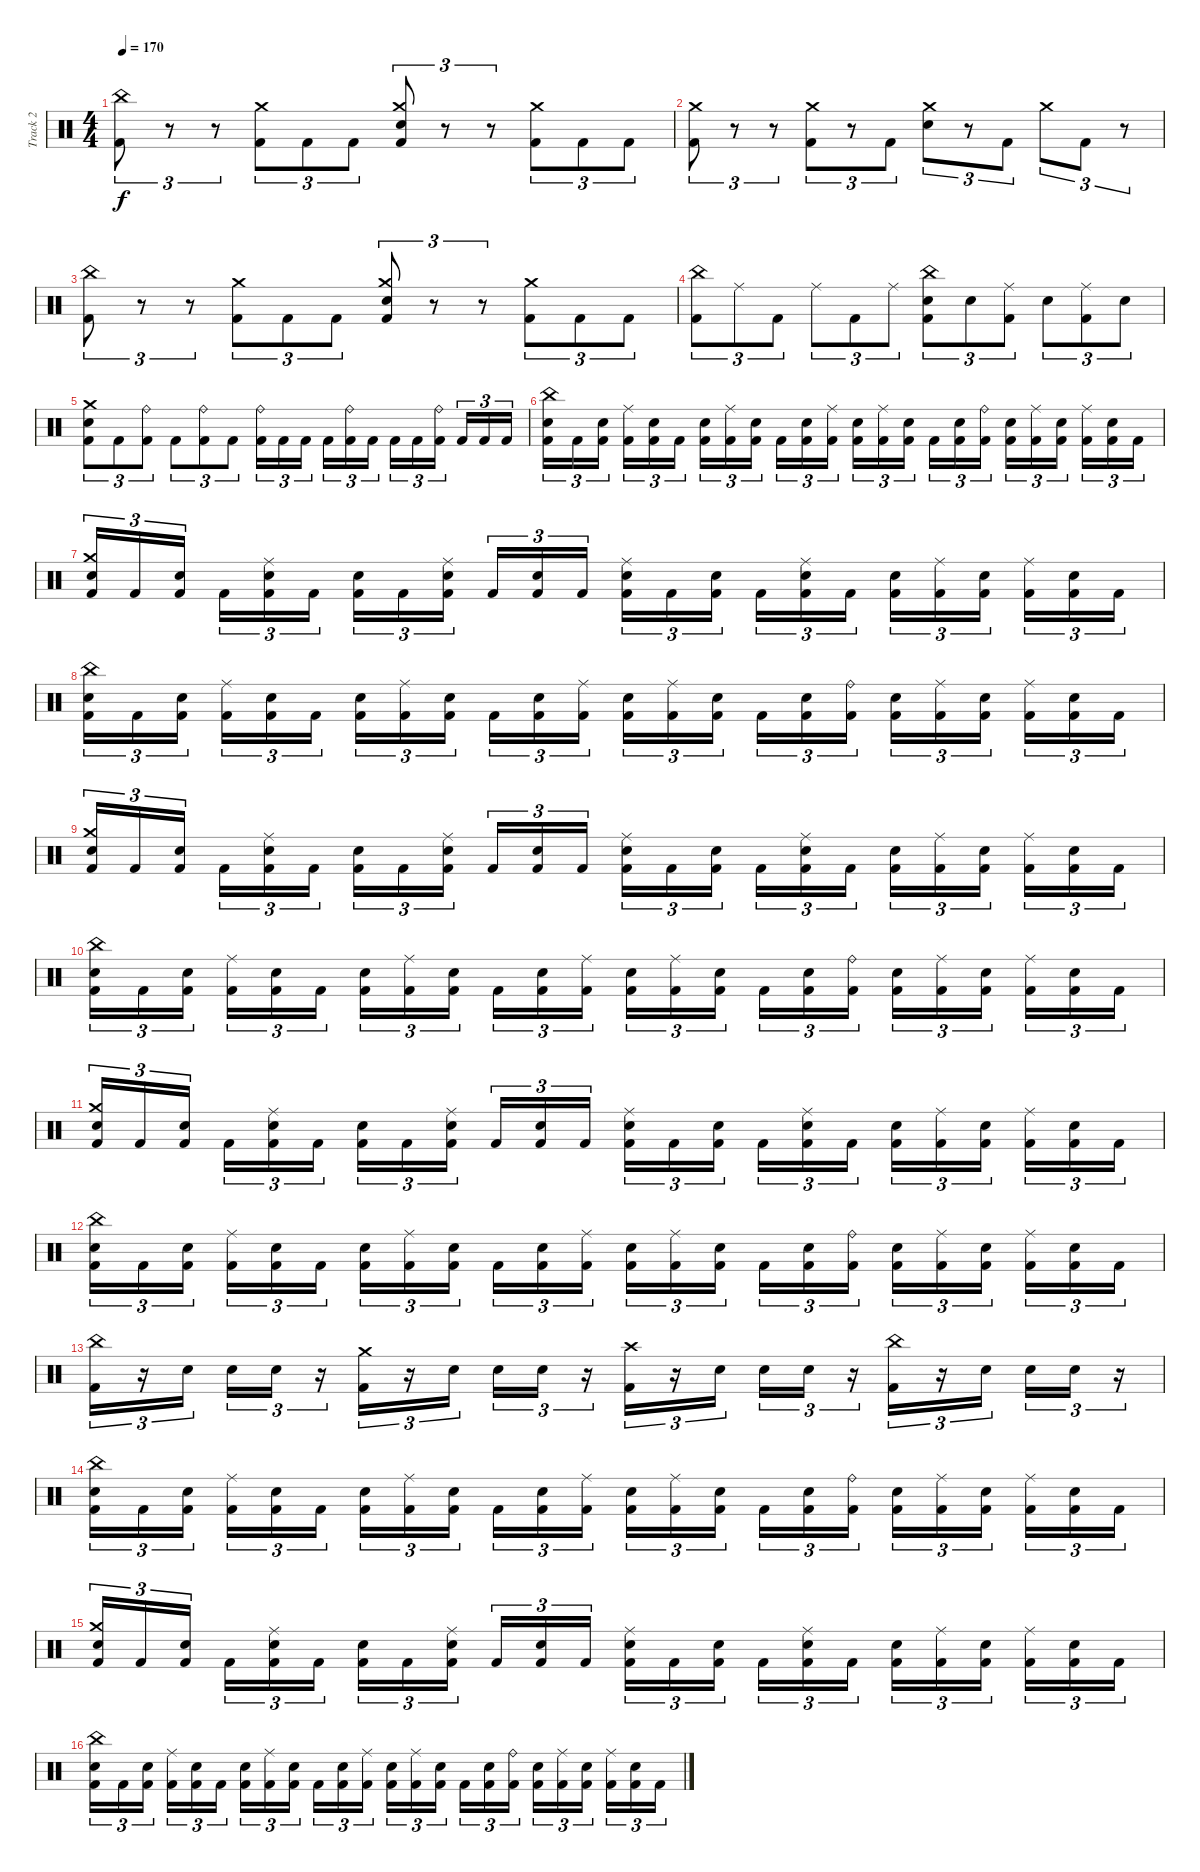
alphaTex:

\track ("Track 2" "Track 2") {instrument percussion}
\staff {score}
\articulation defaults
\ts (4 4)
\tempo 170
\clef neutral
\ks c
("China (hit)" "Kick (hit) 2").8{tu (3 2) dy f} r.8{tu (3 2)} r.8{tu (3 2)} ("Crash medium (hit)" "Kick (hit) 2").8{tu (3 2)} "Kick (hit) 2".8{tu (3 2)} "Kick (hit) 2".8{tu (3 2)} ("Crash medium (hit)" "Electric Snare (hit)" "Kick (hit) 2").8{tu (3 2)} r.8{tu (3 2)} r.8{tu (3 2)} ("Crash medium (hit)" "Kick (hit) 2").8{tu (3 2)} "Kick (hit) 2".8{tu (3 2)} "Kick (hit) 2".8{tu (3 2)} |
("Crash medium (hit)" "Kick (hit) 2").8{tu (3 2)} r.8{tu (3 2)} r.8{tu (3 2)} ("Crash medium (hit)" "Kick (hit) 2").8{tu (3 2)} r.8{tu (3 2)} "Kick (hit) 2".8{tu (3 2)} ("Crash medium (hit)" "Electric Snare (hit)").8{tu (3 2)} r.8{tu (3 2)} "Kick (hit) 2".8{tu (3 2)} "Crash medium (hit)".8{tu (3 2)} "Kick (hit) 2".8{tu (3 2)} r.8{tu (3 2)} |
("China (hit)" "Kick (hit) 2").8{tu (3 2)} r.8{tu (3 2)} r.8{tu (3 2)} ("Crash medium (hit)" "Kick (hit) 2").8{tu (3 2)} "Kick (hit) 2".8{tu (3 2)} "Kick (hit) 2".8{tu (3 2)} ("Crash medium (hit)" "Electric Snare (hit)" "Kick (hit) 2").8{tu (3 2)} r.8{tu (3 2)} r.8{tu (3 2)} ("Crash medium (hit)" "Kick (hit) 2").8{tu (3 2)} "Kick (hit) 2".8{tu (3 2)} "Kick (hit) 2".8{tu (3 2)} |
("China (hit)" "Kick (hit) 2").8{tu (3 2)} "Ride (middle)".8{tu (3 2)} "Kick (hit) 2".8{tu (3 2)} "Ride (middle)".8{tu (3 2)} "Kick (hit) 2".8{tu (3 2)} "Ride (middle)".8{tu (3 2)} ("China (hit)" "Electric Snare (hit)" "Kick (hit) 2").8{tu (3 2)} "Electric Snare (hit)".8{tu (3 2)} ("Ride (middle)" "Kick (hit) 2").8{tu (3 2)} "Electric Snare (hit)".8{tu (3 2)} ("Ride (middle)" "Kick (hit) 2").8{tu (3 2)} "Electric Snare (hit)".8{tu (3 2)} |
("Crash medium (hit)" "Electric Snare (hit)" "Kick (hit) 2").8{tu (3 2)} "Kick (hit) 2".8{tu (3 2)} ("Ride (bell)" "Kick (hit) 2").8{tu (3 2)} "Kick (hit) 2".8{tu (3 2)} ("Ride (bell)" "Kick (hit) 2").8{tu (3 2)} "Kick (hit) 2".8{tu (3 2)} ("Ride (bell)" "Kick (hit) 2").16{tu (3 2)} "Kick (hit) 2".16{tu (3 2)} "Kick (hit) 2".16{tu (3 2)} "Kick (hit) 2".16{tu (3 2)} ("Ride (bell)" "Kick (hit) 2").16{tu (3 2)} "Kick (hit) 2".16{tu (3 2)} "Kick (hit) 2".16{tu (3 2)} "Kick (hit) 2".16{tu (3 2)} ("Ride (bell)" "Kick (hit) 2").16{tu (3 2)} "Kick (hit) 2".16{tu (3 2)} "Kick (hit) 2".16{tu (3 2)} "Kick (hit) 2".16{tu (3 2)} |
("China (hit)" "Electric Snare (hit)" "Kick (hit) 2").16{tu (3 2)} "Kick (hit) 2".16{tu (3 2)} ("Electric Snare (hit)" "Kick (hit) 2").16{tu (3 2)} ("Ride (middle)" "Kick (hit) 2").16{tu (3 2)} ("Electric Snare (hit)" "Kick (hit) 2").16{tu (3 2)} "Kick (hit) 2".16{tu (3 2)} ("Electric Snare (hit)" "Kick (hit) 2").16{tu (3 2)} ("Ride (middle)" "Kick (hit) 2").16{tu (3 2)} ("Electric Snare (hit)" "Kick (hit) 2").16{tu (3 2)} "Kick (hit) 2".16{tu (3 2)} ("Electric Snare (hit)" "Kick (hit) 2").16{tu (3 2)} ("Ride (middle)" "Kick (hit) 2").16{tu (3 2)} ("Electric Snare (hit)" "Kick (hit) 2").16{tu (3 2)} ("Ride (middle)" "Kick (hit) 2").16{tu (3 2)} ("Electric Snare (hit)" "Kick (hit) 2").16{tu (3 2)} "Kick (hit) 2".16{tu (3 2)} ("Electric Snare (hit)" "Kick (hit) 2").16{tu (3 2)} ("Ride (bell)" "Kick (hit) 2").16{tu (3 2)} ("Electric Snare (hit)" "Kick (hit) 2").16{tu (3 2)} ("Ride (middle)" "Kick (hit) 2").16{tu (3 2)} ("Electric Snare (hit)" "Kick (hit) 2").16{tu (3 2)} ("Ride (middle)" "Kick (hit) 2").16{tu (3 2)} ("Electric Snare (hit)" "Kick (hit) 2").16{tu (3 2)} "Kick (hit) 2".16{tu (3 2)} |
("Crash medium (hit)" "Electric Snare (hit)" "Kick (hit) 2").16{tu (3 2)} "Kick (hit) 2".16{tu (3 2)} ("Electric Snare (hit)" "Kick (hit) 2").16{tu (3 2)} "Kick (hit) 2".16{tu (3 2)} ("Ride (middle)" "Electric Snare (hit)" "Kick (hit) 2").16{tu (3 2)} "Kick (hit) 2".16{tu (3 2)} ("Electric Snare (hit)" "Kick (hit) 2").16{tu (3 2)} "Kick (hit) 2".16{tu (3 2)} ("Ride (middle)" "Electric Snare (hit)" "Kick (hit) 2").16{tu (3 2)} "Kick (hit) 2".16{tu (3 2)} ("Electric Snare (hit)" "Kick (hit) 2").16{tu (3 2)} "Kick (hit) 2".16{tu (3 2)} ("Ride (middle)" "Electric Snare (hit)" "Kick (hit) 2").16{tu (3 2)} "Kick (hit) 2".16{tu (3 2)} ("Electric Snare (hit)" "Kick (hit) 2").16{tu (3 2)} "Kick (hit) 2".16{tu (3 2)} ("Ride (middle)" "Electric Snare (hit)" "Kick (hit) 2").16{tu (3 2)} "Kick (hit) 2".16{tu (3 2)} ("Electric Snare (hit)" "Kick (hit) 2").16{tu (3 2)} ("Ride (middle)" "Kick (hit) 2").16{tu (3 2)} ("Electric Snare (hit)" "Kick (hit) 2").16{tu (3 2)} ("Ride (middle)" "Kick (hit) 2").16{tu (3 2)} ("Electric Snare (hit)" "Kick (hit) 2").16{tu (3 2)} "Kick (hit) 2".16{tu (3 2)} |
("China (hit)" "Electric Snare (hit)" "Kick (hit) 2").16{tu (3 2)} "Kick (hit) 2".16{tu (3 2)} ("Electric Snare (hit)" "Kick (hit) 2").16{tu (3 2)} ("Ride (middle)" "Kick (hit) 2").16{tu (3 2)} ("Electric Snare (hit)" "Kick (hit) 2").16{tu (3 2)} "Kick (hit) 2".16{tu (3 2)} ("Electric Snare (hit)" "Kick (hit) 2").16{tu (3 2)} ("Ride (middle)" "Kick (hit) 2").16{tu (3 2)} ("Electric Snare (hit)" "Kick (hit) 2").16{tu (3 2)} "Kick (hit) 2".16{tu (3 2)} ("Electric Snare (hit)" "Kick (hit) 2").16{tu (3 2)} ("Ride (middle)" "Kick (hit) 2").16{tu (3 2)} ("Electric Snare (hit)" "Kick (hit) 2").16{tu (3 2)} ("Ride (middle)" "Kick (hit) 2").16{tu (3 2)} ("Electric Snare (hit)" "Kick (hit) 2").16{tu (3 2)} "Kick (hit) 2".16{tu (3 2)} ("Electric Snare (hit)" "Kick (hit) 2").16{tu (3 2)} ("Ride (bell)" "Kick (hit) 2").16{tu (3 2)} ("Electric Snare (hit)" "Kick (hit) 2").16{tu (3 2)} ("Ride (middle)" "Kick (hit) 2").16{tu (3 2)} ("Electric Snare (hit)" "Kick (hit) 2").16{tu (3 2)} ("Ride (middle)" "Kick (hit) 2").16{tu (3 2)} ("Electric Snare (hit)" "Kick (hit) 2").16{tu (3 2)} "Kick (hit) 2".16{tu (3 2)} |
("Crash medium (hit)" "Electric Snare (hit)" "Kick (hit) 2").16{tu (3 2)} "Kick (hit) 2".16{tu (3 2)} ("Electric Snare (hit)" "Kick (hit) 2").16{tu (3 2)} "Kick (hit) 2".16{tu (3 2)} ("Ride (middle)" "Electric Snare (hit)" "Kick (hit) 2").16{tu (3 2)} "Kick (hit) 2".16{tu (3 2)} ("Electric Snare (hit)" "Kick (hit) 2").16{tu (3 2)} "Kick (hit) 2".16{tu (3 2)} ("Ride (middle)" "Electric Snare (hit)" "Kick (hit) 2").16{tu (3 2)} "Kick (hit) 2".16{tu (3 2)} ("Electric Snare (hit)" "Kick (hit) 2").16{tu (3 2)} "Kick (hit) 2".16{tu (3 2)} ("Ride (middle)" "Electric Snare (hit)" "Kick (hit) 2").16{tu (3 2)} "Kick (hit) 2".16{tu (3 2)} ("Electric Snare (hit)" "Kick (hit) 2").16{tu (3 2)} "Kick (hit) 2".16{tu (3 2)} ("Ride (middle)" "Electric Snare (hit)" "Kick (hit) 2").16{tu (3 2)} "Kick (hit) 2".16{tu (3 2)} ("Electric Snare (hit)" "Kick (hit) 2").16{tu (3 2)} ("Ride (middle)" "Kick (hit) 2").16{tu (3 2)} ("Electric Snare (hit)" "Kick (hit) 2").16{tu (3 2)} ("Ride (middle)" "Kick (hit) 2").16{tu (3 2)} ("Electric Snare (hit)" "Kick (hit) 2").16{tu (3 2)} "Kick (hit) 2".16{tu (3 2)} |
("China (hit)" "Electric Snare (hit)" "Kick (hit) 2").16{tu (3 2)} "Kick (hit) 2".16{tu (3 2)} ("Electric Snare (hit)" "Kick (hit) 2").16{tu (3 2)} ("Ride (middle)" "Kick (hit) 2").16{tu (3 2)} ("Electric Snare (hit)" "Kick (hit) 2").16{tu (3 2)} "Kick (hit) 2".16{tu (3 2)} ("Electric Snare (hit)" "Kick (hit) 2").16{tu (3 2)} ("Ride (middle)" "Kick (hit) 2").16{tu (3 2)} ("Electric Snare (hit)" "Kick (hit) 2").16{tu (3 2)} "Kick (hit) 2".16{tu (3 2)} ("Electric Snare (hit)" "Kick (hit) 2").16{tu (3 2)} ("Ride (middle)" "Kick (hit) 2").16{tu (3 2)} ("Electric Snare (hit)" "Kick (hit) 2").16{tu (3 2)} ("Ride (middle)" "Kick (hit) 2").16{tu (3 2)} ("Electric Snare (hit)" "Kick (hit) 2").16{tu (3 2)} "Kick (hit) 2".16{tu (3 2)} ("Electric Snare (hit)" "Kick (hit) 2").16{tu (3 2)} ("Ride (bell)" "Kick (hit) 2").16{tu (3 2)} ("Electric Snare (hit)" "Kick (hit) 2").16{tu (3 2)} ("Ride (middle)" "Kick (hit) 2").16{tu (3 2)} ("Electric Snare (hit)" "Kick (hit) 2").16{tu (3 2)} ("Ride (middle)" "Kick (hit) 2").16{tu (3 2)} ("Electric Snare (hit)" "Kick (hit) 2").16{tu (3 2)} "Kick (hit) 2".16{tu (3 2)} |
("Crash medium (hit)" "Electric Snare (hit)" "Kick (hit) 2").16{tu (3 2)} "Kick (hit) 2".16{tu (3 2)} ("Electric Snare (hit)" "Kick (hit) 2").16{tu (3 2)} "Kick (hit) 2".16{tu (3 2)} ("Ride (middle)" "Electric Snare (hit)" "Kick (hit) 2").16{tu (3 2)} "Kick (hit) 2".16{tu (3 2)} ("Electric Snare (hit)" "Kick (hit) 2").16{tu (3 2)} "Kick (hit) 2".16{tu (3 2)} ("Ride (middle)" "Electric Snare (hit)" "Kick (hit) 2").16{tu (3 2)} "Kick (hit) 2".16{tu (3 2)} ("Electric Snare (hit)" "Kick (hit) 2").16{tu (3 2)} "Kick (hit) 2".16{tu (3 2)} ("Ride (middle)" "Electric Snare (hit)" "Kick (hit) 2").16{tu (3 2)} "Kick (hit) 2".16{tu (3 2)} ("Electric Snare (hit)" "Kick (hit) 2").16{tu (3 2)} "Kick (hit) 2".16{tu (3 2)} ("Ride (middle)" "Electric Snare (hit)" "Kick (hit) 2").16{tu (3 2)} "Kick (hit) 2".16{tu (3 2)} ("Electric Snare (hit)" "Kick (hit) 2").16{tu (3 2)} ("Ride (middle)" "Kick (hit) 2").16{tu (3 2)} ("Electric Snare (hit)" "Kick (hit) 2").16{tu (3 2)} ("Ride (middle)" "Kick (hit) 2").16{tu (3 2)} ("Electric Snare (hit)" "Kick (hit) 2").16{tu (3 2)} "Kick (hit) 2".16{tu (3 2)} |
("China (hit)" "Electric Snare (hit)" "Kick (hit) 2").16{tu (3 2)} "Kick (hit) 2".16{tu (3 2)} ("Electric Snare (hit)" "Kick (hit) 2").16{tu (3 2)} ("Ride (middle)" "Kick (hit) 2").16{tu (3 2)} ("Electric Snare (hit)" "Kick (hit) 2").16{tu (3 2)} "Kick (hit) 2".16{tu (3 2)} ("Electric Snare (hit)" "Kick (hit) 2").16{tu (3 2)} ("Ride (middle)" "Kick (hit) 2").16{tu (3 2)} ("Electric Snare (hit)" "Kick (hit) 2").16{tu (3 2)} "Kick (hit) 2".16{tu (3 2)} ("Electric Snare (hit)" "Kick (hit) 2").16{tu (3 2)} ("Ride (middle)" "Kick (hit) 2").16{tu (3 2)} ("Electric Snare (hit)" "Kick (hit) 2").16{tu (3 2)} ("Ride (middle)" "Kick (hit) 2").16{tu (3 2)} ("Electric Snare (hit)" "Kick (hit) 2").16{tu (3 2)} "Kick (hit) 2".16{tu (3 2)} ("Electric Snare (hit)" "Kick (hit) 2").16{tu (3 2)} ("Ride (bell)" "Kick (hit) 2").16{tu (3 2)} ("Electric Snare (hit)" "Kick (hit) 2").16{tu (3 2)} ("Ride (middle)" "Kick (hit) 2").16{tu (3 2)} ("Electric Snare (hit)" "Kick (hit) 2").16{tu (3 2)} ("Ride (middle)" "Kick (hit) 2").16{tu (3 2)} ("Electric Snare (hit)" "Kick (hit) 2").16{tu (3 2)} "Kick (hit) 2".16{tu (3 2)} |
("China (hit)" "Kick (hit) 2").16{tu (3 2)} r.16{tu (3 2)} "Electric Snare (hit)".16{tu (3 2)} "Electric Snare (hit)".16{tu (3 2)} "Electric Snare (hit)".16{tu (3 2)} r.16{tu (3 2)} ("Crash medium (hit)" "Kick (hit) 2").16{tu (3 2)} r.16{tu (3 2)} "Electric Snare (hit)".16{tu (3 2)} "Electric Snare (hit)".16{tu (3 2)} "Electric Snare (hit)".16{tu (3 2)} r.16{tu (3 2)} ("Crash high (hit)" "Kick (hit) 2").16{tu (3 2)} r.16{tu (3 2)} "Electric Snare (hit)".16{tu (3 2)} "Electric Snare (hit)".16{tu (3 2)} "Electric Snare (hit)".16{tu (3 2)} r.16{tu (3 2)} ("China (hit)" "Kick (hit) 2").16{tu (3 2)} r.16{tu (3 2)} "Electric Snare (hit)".16{tu (3 2)} "Electric Snare (hit)".16{tu (3 2)} "Electric Snare (hit)".16{tu (3 2)} r.16{tu (3 2)} |
("China (hit)" "Electric Snare (hit)" "Kick (hit) 2").16{tu (3 2)} "Kick (hit) 2".16{tu (3 2)} ("Electric Snare (hit)" "Kick (hit) 2").16{tu (3 2)} ("Ride (middle)" "Kick (hit) 2").16{tu (3 2)} ("Electric Snare (hit)" "Kick (hit) 2").16{tu (3 2)} "Kick (hit) 2".16{tu (3 2)} ("Electric Snare (hit)" "Kick (hit) 2").16{tu (3 2)} ("Ride (middle)" "Kick (hit) 2").16{tu (3 2)} ("Electric Snare (hit)" "Kick (hit) 2").16{tu (3 2)} "Kick (hit) 2".16{tu (3 2)} ("Electric Snare (hit)" "Kick (hit) 2").16{tu (3 2)} ("Ride (middle)" "Kick (hit) 2").16{tu (3 2)} ("Electric Snare (hit)" "Kick (hit) 2").16{tu (3 2)} ("Ride (middle)" "Kick (hit) 2").16{tu (3 2)} ("Electric Snare (hit)" "Kick (hit) 2").16{tu (3 2)} "Kick (hit) 2".16{tu (3 2)} ("Electric Snare (hit)" "Kick (hit) 2").16{tu (3 2)} ("Ride (bell)" "Kick (hit) 2").16{tu (3 2)} ("Electric Snare (hit)" "Kick (hit) 2").16{tu (3 2)} ("Ride (middle)" "Kick (hit) 2").16{tu (3 2)} ("Electric Snare (hit)" "Kick (hit) 2").16{tu (3 2)} ("Ride (middle)" "Kick (hit) 2").16{tu (3 2)} ("Electric Snare (hit)" "Kick (hit) 2").16{tu (3 2)} "Kick (hit) 2".16{tu (3 2)} |
("Crash medium (hit)" "Electric Snare (hit)" "Kick (hit) 2").16{tu (3 2)} "Kick (hit) 2".16{tu (3 2)} ("Electric Snare (hit)" "Kick (hit) 2").16{tu (3 2)} "Kick (hit) 2".16{tu (3 2)} ("Ride (middle)" "Electric Snare (hit)" "Kick (hit) 2").16{tu (3 2)} "Kick (hit) 2".16{tu (3 2)} ("Electric Snare (hit)" "Kick (hit) 2").16{tu (3 2)} "Kick (hit) 2".16{tu (3 2)} ("Ride (middle)" "Electric Snare (hit)" "Kick (hit) 2").16{tu (3 2)} "Kick (hit) 2".16{tu (3 2)} ("Electric Snare (hit)" "Kick (hit) 2").16{tu (3 2)} "Kick (hit) 2".16{tu (3 2)} ("Ride (middle)" "Electric Snare (hit)" "Kick (hit) 2").16{tu (3 2)} "Kick (hit) 2".16{tu (3 2)} ("Electric Snare (hit)" "Kick (hit) 2").16{tu (3 2)} "Kick (hit) 2".16{tu (3 2)} ("Ride (middle)" "Electric Snare (hit)" "Kick (hit) 2").16{tu (3 2)} "Kick (hit) 2".16{tu (3 2)} ("Electric Snare (hit)" "Kick (hit) 2").16{tu (3 2)} ("Ride (middle)" "Kick (hit) 2").16{tu (3 2)} ("Electric Snare (hit)" "Kick (hit) 2").16{tu (3 2)} ("Ride (middle)" "Kick (hit) 2").16{tu (3 2)} ("Electric Snare (hit)" "Kick (hit) 2").16{tu (3 2)} "Kick (hit) 2".16{tu (3 2)} |
("China (hit)" "Electric Snare (hit)" "Kick (hit) 2").16{tu (3 2)} "Kick (hit) 2".16{tu (3 2)} ("Electric Snare (hit)" "Kick (hit) 2").16{tu (3 2)} ("Ride (middle)" "Kick (hit) 2").16{tu (3 2)} ("Electric Snare (hit)" "Kick (hit) 2").16{tu (3 2)} "Kick (hit) 2".16{tu (3 2)} ("Electric Snare (hit)" "Kick (hit) 2").16{tu (3 2)} ("Ride (middle)" "Kick (hit) 2").16{tu (3 2)} ("Electric Snare (hit)" "Kick (hit) 2").16{tu (3 2)} "Kick (hit) 2".16{tu (3 2)} ("Electric Snare (hit)" "Kick (hit) 2").16{tu (3 2)} ("Ride (middle)" "Kick (hit) 2").16{tu (3 2)} ("Electric Snare (hit)" "Kick (hit) 2").16{tu (3 2)} ("Ride (middle)" "Kick (hit) 2").16{tu (3 2)} ("Electric Snare (hit)" "Kick (hit) 2").16{tu (3 2)} "Kick (hit) 2".16{tu (3 2)} ("Electric Snare (hit)" "Kick (hit) 2").16{tu (3 2)} ("Ride (bell)" "Kick (hit) 2").16{tu (3 2)} ("Electric Snare (hit)" "Kick (hit) 2").16{tu (3 2)} ("Ride (middle)" "Kick (hit) 2").16{tu (3 2)} ("Electric Snare (hit)" "Kick (hit) 2").16{tu (3 2)} ("Ride (middle)" "Kick (hit) 2").16{tu (3 2)} ("Electric Snare (hit)" "Kick (hit) 2").16{tu (3 2)} "Kick (hit) 2".16{tu (3 2)}
